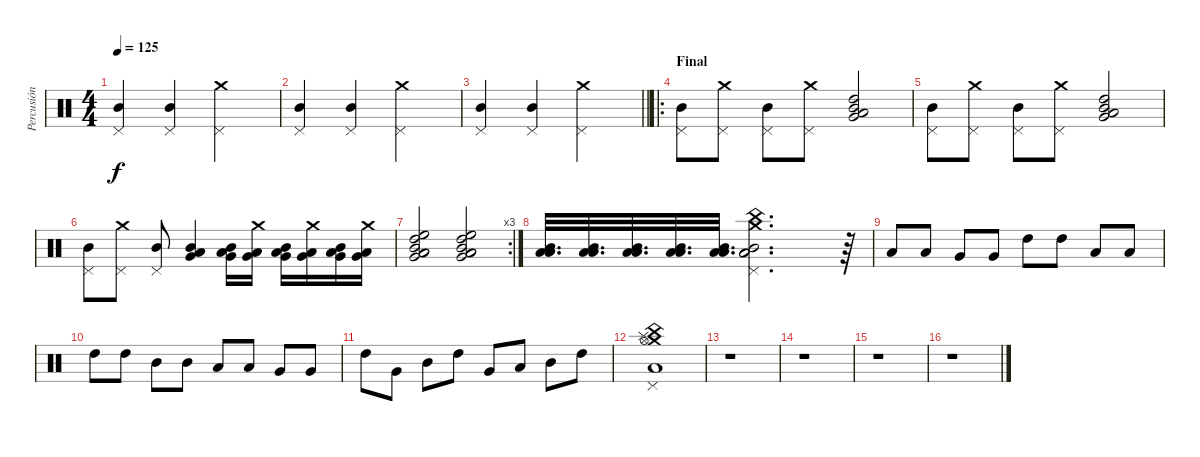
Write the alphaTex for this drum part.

\track ("Percusión" "Percusión") {instrument percussion}
\staff {score}
\articulation defaults
\ts (4 4)
\tempo 125
\clef neutral
\ks c
("Pedal Hi-Hat (hit)" "Mid Tom (hit)").4{dy f} ("Pedal Hi-Hat (hit)" "Mid Tom (hit)").4 ("Crash medium (hit)" "Pedal Hi-Hat (hit)").2 |
("Pedal Hi-Hat (hit)" "Mid Tom (hit)").4 ("Pedal Hi-Hat (hit)" "Mid Tom (hit)").4 ("Crash medium (hit)" "Pedal Hi-Hat (hit)").2 |
\barLineRight lightlight
("Pedal Hi-Hat (hit)" "Mid Tom (hit)").4 ("Pedal Hi-Hat (hit)" "Mid Tom (hit)").4 ("Crash medium (hit)" "Pedal Hi-Hat (hit)").2 |
\ro
\section ("" "Final")
("Pedal Hi-Hat (hit)" "Mid Tom (hit)").8 ("Pedal Hi-Hat (hit)" "Crash medium (hit)").8 ("Pedal Hi-Hat (hit)" "Mid Tom (hit)").8 ("Pedal Hi-Hat (hit)" "Crash medium (hit)").8 ("High Tom (hit)" "Mid Tom (hit)" "Very Low Tom (hit)" "Low Tom (hit)").2 |
("Pedal Hi-Hat (hit)" "Mid Tom (hit)").8 ("Pedal Hi-Hat (hit)" "Crash medium (hit)").8 ("Pedal Hi-Hat (hit)" "Mid Tom (hit)").8 ("Pedal Hi-Hat (hit)" "Crash medium (hit)").8 ("High Tom (hit)" "Mid Tom (hit)" "Very Low Tom (hit)" "Low Tom (hit)").2 |
("Pedal Hi-Hat (hit)" "Mid Tom (hit)").8 ("Pedal Hi-Hat (hit)" "Crash medium (hit)").8 ("Pedal Hi-Hat (hit)" "Mid Tom (hit)").8 ("Mid Tom (hit)" "Very Low Tom (hit)" "Low Tom (hit)").4 ("Mid Tom (hit)" "Low Tom (hit)" "Very Low Tom (hit)").16 ("Crash medium (hit)" "Low Tom (hit)" "Very Low Tom (hit)").16 ("Mid Tom (hit)" "Low Tom (hit)" "Very Low Tom (hit)").16 ("Crash medium (hit)" "Low Tom (hit)" "Very Low Tom (hit)").16 ("Mid Tom (hit)" "Low Tom (hit)" "Very Low Tom (hit)").16 ("Crash medium (hit)" "Low Tom (hit)" "Very Low Tom (hit)").16 |
\rc 3
("High Tom (hit)" "Low Tom (hit)" "Very Low Tom (hit)" "Mid Tom (hit)" "High Floor Tom (hit)" "Low Floor Tom (hit)").2 ("High Tom (hit)" "Low Tom (hit)" "Very Low Tom (hit)" "Mid Tom (hit)" "High Floor Tom (hit)" "Low Floor Tom (hit)").2 |
("Low Tom (hit)" "Mid Tom (hit)" "Low Floor Tom (hit)").32{d} ("Low Tom (hit)" "Mid Tom (hit)" "Low Floor Tom (hit)").32{d} ("Low Tom (hit)" "Mid Tom (hit)" "Low Floor Tom (hit)").32{d} ("Low Tom (hit)" "Mid Tom (hit)" "Low Floor Tom (hit)").32{d} ("Low Tom (hit)" "Mid Tom (hit)" "Low Floor Tom (hit)").32{d} ("China (hit)" "Low Tom (hit)" "Pedal Hi-Hat (hit)" "Mid Tom (hit)" "Crash medium (hit)" "Low Floor Tom (hit)").2{d} r.64 |
"Low Floor Tom (hit)".8 "Low Floor Tom (hit)".8 "Very Low Tom (hit)".8 "Very Low Tom (hit)".8 "High Tom (hit)".8 "High Tom (hit)".8 "Low Floor Tom (hit)".8 "Low Floor Tom (hit)".8 |
"High Tom (hit)".8 "High Tom (hit)".8 "Mid Tom (hit)".8 "Mid Tom (hit)".8 "Low Floor Tom (hit)".8 "Low Floor Tom (hit)".8 "Very Low Tom (hit)".8 "Very Low Tom (hit)".8 |
"High Tom (hit)".8 "Very Low Tom (hit)".8 "Mid Tom (hit)".8 "High Tom (hit)".8 "Very Low Tom (hit)".8 "Low Floor Tom (hit)".8 "Mid Tom (hit)".8 "High Tom (hit)".8 |
("Splash (hit)" "Crash medium (hit)" "China (hit)" "Hi-Hat (open)" "Pedal Hi-Hat (hit)" "Low Floor Tom (hit)").1 |
r.1 |
r.1 |
r.1 |
r.1
